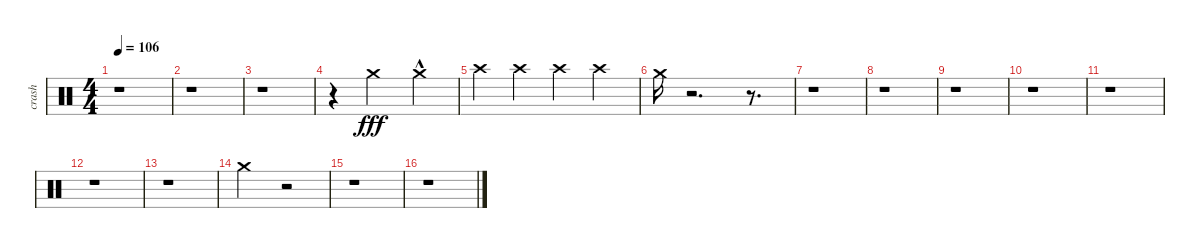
\track ("crash" "crash") {instrument percussion}
\staff {score}
\articulation defaults
\ts (4 4)
\tempo 106
\clef neutral
\ks c
r.1{dy fff} |
r.1 |
r.1 |
r.4 "Crash medium (hit)".2 "Crash medium (hit)"{hac}.4 |
"Crash high (hit)".4 "Crash high (hit)".4 "Crash high (hit)".4 "Crash high (hit)".4 |
"Crash medium (hit)".16 r.2{d} r.8{d} |
r.1 |
r.1 |
r.1 |
r.1 |
r.1 |
r.1 |
r.1 |
"Crash medium (hit)".2 r.2 |
r.1 |
r.1
